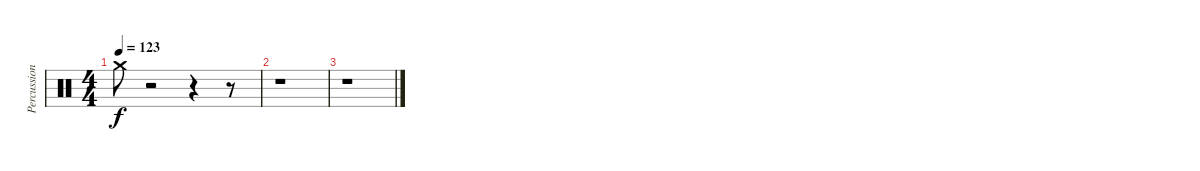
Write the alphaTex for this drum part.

\track ("Percussions" "Percussion") {instrument percussion}
\staff {score}
\articulation defaults
\ts (4 4)
\tempo 123
\clef neutral
\ks c "Crash medium (hit)".8{dy f}
r.2 r.4 r.8 |
r.1 |
r.1
